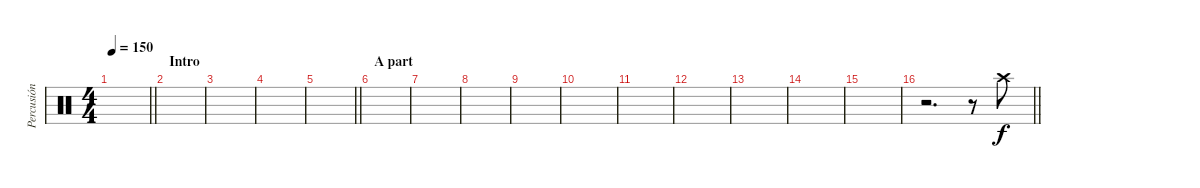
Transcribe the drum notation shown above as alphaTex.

\track ("Percusión" "Percusión") {instrument percussion}
\staff {score}
\articulation defaults
\ts (4 4)
\tempo 150
\clef neutral
\barLineRight lightlight
\ks c
|
\section ("" "Intro")
|
|
|
\barLineRight lightlight
|
\section ("" "A part")
|
|
|
|
|
|
|
|
|
|
\barLineRight lightlight
r.2{d} r.8 "Crash high (hit)".8
